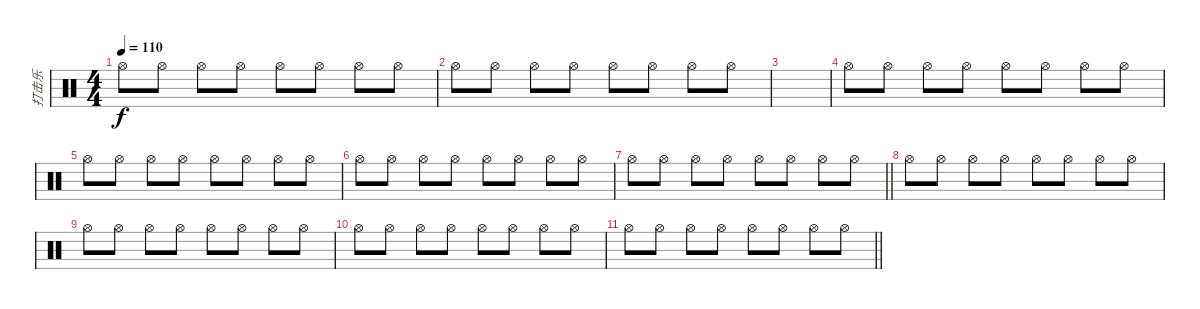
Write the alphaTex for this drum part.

\track ("打击乐" "打击乐") {instrument percussion}
\staff {score}
\articulation defaults
\ts (4 4)
\tempo 110
\clef neutral
\ks c "Hi-Hat (open)".8{dy f} "Hi-Hat (open)".8 "Hi-Hat (open)".8 "Hi-Hat (open)".8 "Hi-Hat (open)".8 "Hi-Hat (open)".8 "Hi-Hat (open)".8 "Hi-Hat (open)".8
|
"Hi-Hat (open)".8 "Hi-Hat (open)".8 "Hi-Hat (open)".8 "Hi-Hat (open)".8 "Hi-Hat (open)".8 "Hi-Hat (open)".8 "Hi-Hat (open)".8 "Hi-Hat (open)".8 |
|
"Hi-Hat (open)".8 "Hi-Hat (open)".8 "Hi-Hat (open)".8 "Hi-Hat (open)".8 "Hi-Hat (open)".8 "Hi-Hat (open)".8 "Hi-Hat (open)".8 "Hi-Hat (open)".8 |
"Hi-Hat (open)".8 "Hi-Hat (open)".8 "Hi-Hat (open)".8 "Hi-Hat (open)".8 "Hi-Hat (open)".8 "Hi-Hat (open)".8 "Hi-Hat (open)".8 "Hi-Hat (open)".8 |
"Hi-Hat (open)".8 "Hi-Hat (open)".8 "Hi-Hat (open)".8 "Hi-Hat (open)".8 "Hi-Hat (open)".8 "Hi-Hat (open)".8 "Hi-Hat (open)".8 "Hi-Hat (open)".8 |
\barLineRight lightlight "Hi-Hat (open)".8 "Hi-Hat (open)".8 "Hi-Hat (open)".8 "Hi-Hat (open)".8 "Hi-Hat (open)".8 "Hi-Hat (open)".8 "Hi-Hat (open)".8 "Hi-Hat (open)".8
|
"Hi-Hat (open)".8 "Hi-Hat (open)".8 "Hi-Hat (open)".8 "Hi-Hat (open)".8 "Hi-Hat (open)".8 "Hi-Hat (open)".8 "Hi-Hat (open)".8 "Hi-Hat (open)".8 |
"Hi-Hat (open)".8 "Hi-Hat (open)".8 "Hi-Hat (open)".8 "Hi-Hat (open)".8 "Hi-Hat (open)".8 "Hi-Hat (open)".8 "Hi-Hat (open)".8 "Hi-Hat (open)".8 |
"Hi-Hat (open)".8 "Hi-Hat (open)".8 "Hi-Hat (open)".8 "Hi-Hat (open)".8 "Hi-Hat (open)".8 "Hi-Hat (open)".8 "Hi-Hat (open)".8 "Hi-Hat (open)".8 |
\barLineRight lightlight "Hi-Hat (open)".8 "Hi-Hat (open)".8 "Hi-Hat (open)".8 "Hi-Hat (open)".8 "Hi-Hat (open)".8 "Hi-Hat (open)".8 "Hi-Hat (open)".8 "Hi-Hat (open)".8
